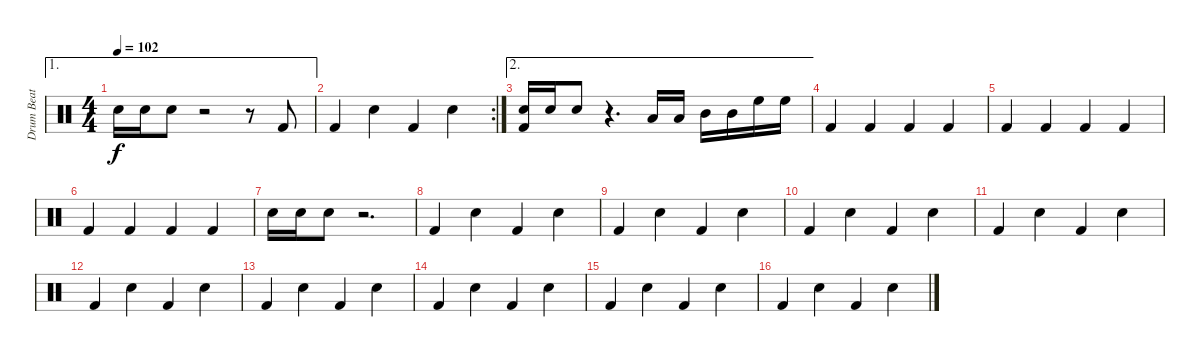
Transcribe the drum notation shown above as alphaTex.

\track ("Drum Beat" "Drum Beat") {instrument percussion}
\staff {score}
\articulation defaults
\ae 1
\ts (4 4)
\tempo 102
\clef neutral
\ks c "Electric Snare (hit)".16{dy f} "Electric Snare (hit)".16 "Electric Snare (hit)".8
r.2 r.8 "Kick (hit) 2".8 |
\rc 2 "Kick (hit) 2".4 "Electric Snare (hit)".4 "Kick (hit) 2".4 "Electric Snare (hit)".4
|
\ae 2
("Electric Snare (hit)" "Kick (hit) 2").16 "Electric Snare (hit)".16 "Electric Snare (hit)".8 r.4{d} "Low Tom (hit)".16 "Low Tom (hit)".16 "Mid Tom (hit)".16 "Mid Tom (hit)".16 "High Floor Tom (hit)".16 "High Floor Tom (hit)".16 |
"Kick (hit) 2".4 "Kick (hit) 2".4 "Kick (hit) 2".4 "Kick (hit) 2".4 |
"Kick (hit) 2".4 "Kick (hit) 2".4 "Kick (hit) 2".4 "Kick (hit) 2".4 |
"Kick (hit) 2".4 "Kick (hit) 2".4 "Kick (hit) 2".4 "Kick (hit) 2".4 |
"Electric Snare (hit)".16 "Electric Snare (hit)".16 "Electric Snare (hit)".8 r.2{d} |
"Kick (hit) 2".4 "Electric Snare (hit)".4 "Kick (hit) 2".4 "Electric Snare (hit)".4 |
"Kick (hit) 2".4 "Electric Snare (hit)".4 "Kick (hit) 2".4 "Electric Snare (hit)".4 |
"Kick (hit) 2".4 "Electric Snare (hit)".4 "Kick (hit) 2".4 "Electric Snare (hit)".4 |
"Kick (hit) 2".4 "Electric Snare (hit)".4 "Kick (hit) 2".4 "Electric Snare (hit)".4 |
"Kick (hit) 2".4 "Electric Snare (hit)".4 "Kick (hit) 2".4 "Electric Snare (hit)".4 |
"Kick (hit) 2".4 "Electric Snare (hit)".4 "Kick (hit) 2".4 "Electric Snare (hit)".4 |
"Kick (hit) 2".4 "Electric Snare (hit)".4 "Kick (hit) 2".4 "Electric Snare (hit)".4 |
"Kick (hit) 2".4 "Electric Snare (hit)".4 "Kick (hit) 2".4 "Electric Snare (hit)".4 |
"Kick (hit) 2".4 "Electric Snare (hit)".4 "Kick (hit) 2".4 "Electric Snare (hit)".4
